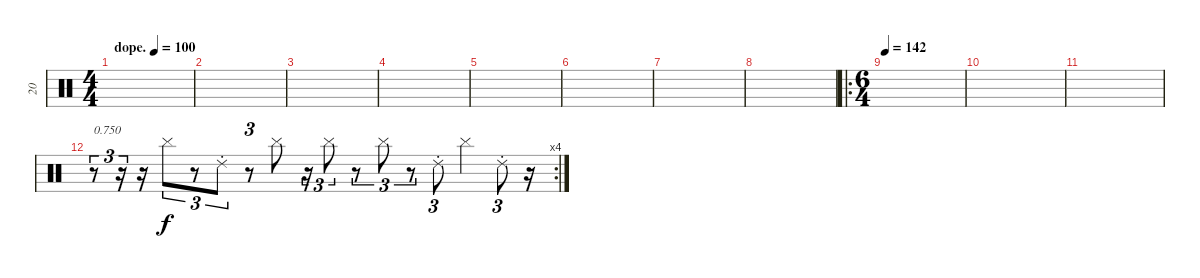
\track ("20" "20") {solo instrument percussion}
\staff {score}
\articulation defaults
\ts (4 4)
\tempo (100 "dope.")
\clef neutral
\ks c
|
|
|
|
|
|
|
|
\ro
\ts (6 4)
\tempo 142
|
|
|
\rc 4
r.8{tu (3 2) txt "0.750"} r.16{tu (3 2)} r.16 "Cymbal (hit)".8{tu (3 2)} r.8{tu (3 2)} "Ride (choke) 2".8{tu (3 2)} r.8{tu (3 2)} "Cymbal (hit)".8 r.16{tu (3 2)} "Cymbal (hit)".8{tu (3 2)} r.8{tu (3 2)} "Cymbal (hit)".8{tu (3 2)} r.8{tu (3 2)} "Ride (choke) 2".8{tu (3 2)} "Cymbal (hit)".4 "Ride (choke) 2".8{tu (3 2)} r.16
